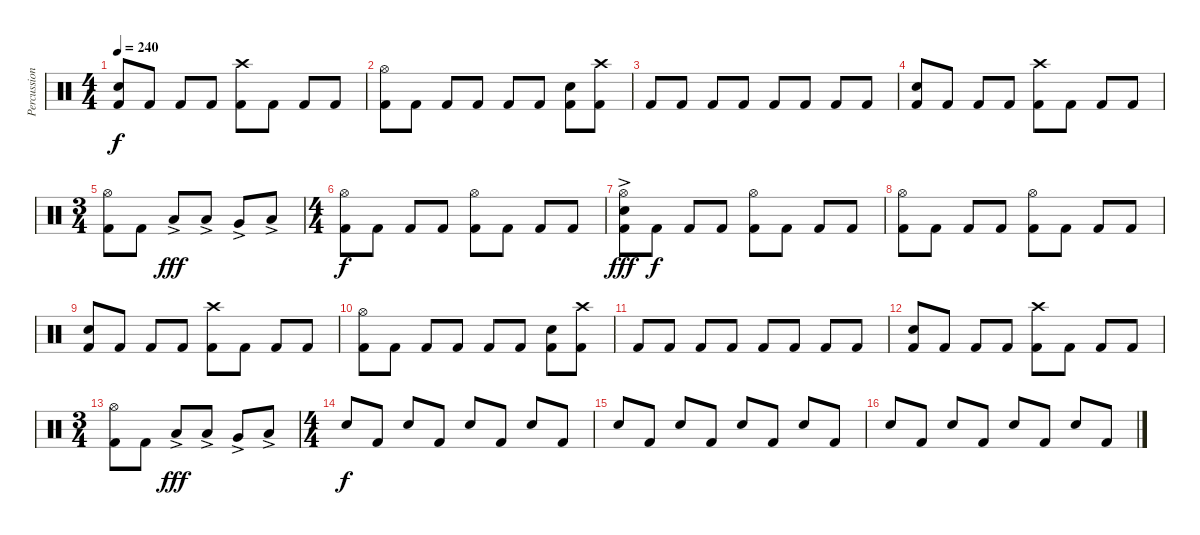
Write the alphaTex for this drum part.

\track ("Percussion" "Percussion") {instrument percussion}
\staff {score}
\articulation defaults
\ts (4 4)
\tempo 240
\clef neutral
\ks c
("Kick (hit) 2" "Electric Snare (hit)").8{dy f} "Kick (hit) 2".8 "Kick (hit) 2".8 "Kick (hit) 2".8 ("Kick (hit) 2" "Crash high (hit)").8 "Kick (hit) 2".8 "Kick (hit) 2".8 "Kick (hit) 2".8 |
("Kick (hit) 2" "Hi-Hat (open)").8 "Kick (hit) 2".8 "Kick (hit) 2".8 "Kick (hit) 2".8 "Kick (hit) 2".8 "Kick (hit) 2".8 ("Kick (hit) 2" "Electric Snare (hit)").8 ("Kick (hit) 2" "Crash high (hit)").8 |
"Kick (hit) 2".8 "Kick (hit) 2".8 "Kick (hit) 2".8 "Kick (hit) 2".8 "Kick (hit) 2".8 "Kick (hit) 2".8 "Kick (hit) 2".8 "Kick (hit) 2".8 |
("Kick (hit) 2" "Electric Snare (hit)").8 "Kick (hit) 2".8 "Kick (hit) 2".8 "Kick (hit) 2".8 ("Kick (hit) 2" "Crash high (hit)").8 "Kick (hit) 2".8 "Kick (hit) 2".8 "Kick (hit) 2".8 |
\ts (3 4)
("Kick (hit) 2" "Hi-Hat (open)").8 "Kick (hit) 2".8 "Low Tom (hit)"{ac}.8{dy fff} "Low Tom (hit)"{ac}.8 "Very Low Tom (hit)"{ac}.8 "Low Floor Tom (hit)"{ac}.8 |
\ts (4 4)
("Kick (hit) 2" "Hi-Hat (open)").8{dy f} "Kick (hit) 2".8 "Kick (hit) 2".8 "Kick (hit) 2".8 ("Kick (hit) 2" "Hi-Hat (open)").8 "Kick (hit) 2".8 "Kick (hit) 2".8 "Kick (hit) 2".8 |
("Kick (hit) 2" "Electric Snare (hit)"{ac} "Hi-Hat (open)").8{dy fff} "Kick (hit) 2".8{dy f} "Kick (hit) 2".8 "Kick (hit) 2".8 ("Kick (hit) 2" "Hi-Hat (open)").8 "Kick (hit) 2".8 "Kick (hit) 2".8 "Kick (hit) 2".8 |
("Kick (hit) 2" "Hi-Hat (open)").8 "Kick (hit) 2".8 "Kick (hit) 2".8 "Kick (hit) 2".8 ("Kick (hit) 2" "Hi-Hat (open)").8 "Kick (hit) 2".8 "Kick (hit) 2".8 "Kick (hit) 2".8 |
("Kick (hit) 2" "Electric Snare (hit)").8 "Kick (hit) 2".8 "Kick (hit) 2".8 "Kick (hit) 2".8 ("Kick (hit) 2" "Crash high (hit)").8 "Kick (hit) 2".8 "Kick (hit) 2".8 "Kick (hit) 2".8 |
("Kick (hit) 2" "Hi-Hat (open)").8 "Kick (hit) 2".8 "Kick (hit) 2".8 "Kick (hit) 2".8 "Kick (hit) 2".8 "Kick (hit) 2".8 ("Kick (hit) 2" "Electric Snare (hit)").8 ("Kick (hit) 2" "Crash high (hit)").8 |
"Kick (hit) 2".8 "Kick (hit) 2".8 "Kick (hit) 2".8 "Kick (hit) 2".8 "Kick (hit) 2".8 "Kick (hit) 2".8 "Kick (hit) 2".8 "Kick (hit) 2".8 |
("Kick (hit) 2" "Electric Snare (hit)").8 "Kick (hit) 2".8 "Kick (hit) 2".8 "Kick (hit) 2".8 ("Kick (hit) 2" "Crash high (hit)").8 "Kick (hit) 2".8 "Kick (hit) 2".8 "Kick (hit) 2".8 |
\ts (3 4)
("Kick (hit) 2" "Hi-Hat (open)").8 "Kick (hit) 2".8 "Low Tom (hit)"{ac}.8{dy fff} "Low Tom (hit)"{ac}.8 "Very Low Tom (hit)"{ac}.8 "Low Floor Tom (hit)"{ac}.8 |
\ts (4 4)
"Electric Snare (hit)".8{dy f} "Kick (hit) 2".8 "Electric Snare (hit)".8 "Kick (hit) 2".8 "Electric Snare (hit)".8 "Kick (hit) 2".8 "Electric Snare (hit)".8 "Kick (hit) 2".8 |
"Electric Snare (hit)".8 "Kick (hit) 2".8 "Electric Snare (hit)".8 "Kick (hit) 2".8 "Electric Snare (hit)".8 "Kick (hit) 2".8 "Electric Snare (hit)".8 "Kick (hit) 2".8 |
"Electric Snare (hit)".8 "Kick (hit) 2".8 "Electric Snare (hit)".8 "Kick (hit) 2".8 "Electric Snare (hit)".8 "Kick (hit) 2".8 "Electric Snare (hit)".8 "Kick (hit) 2".8
